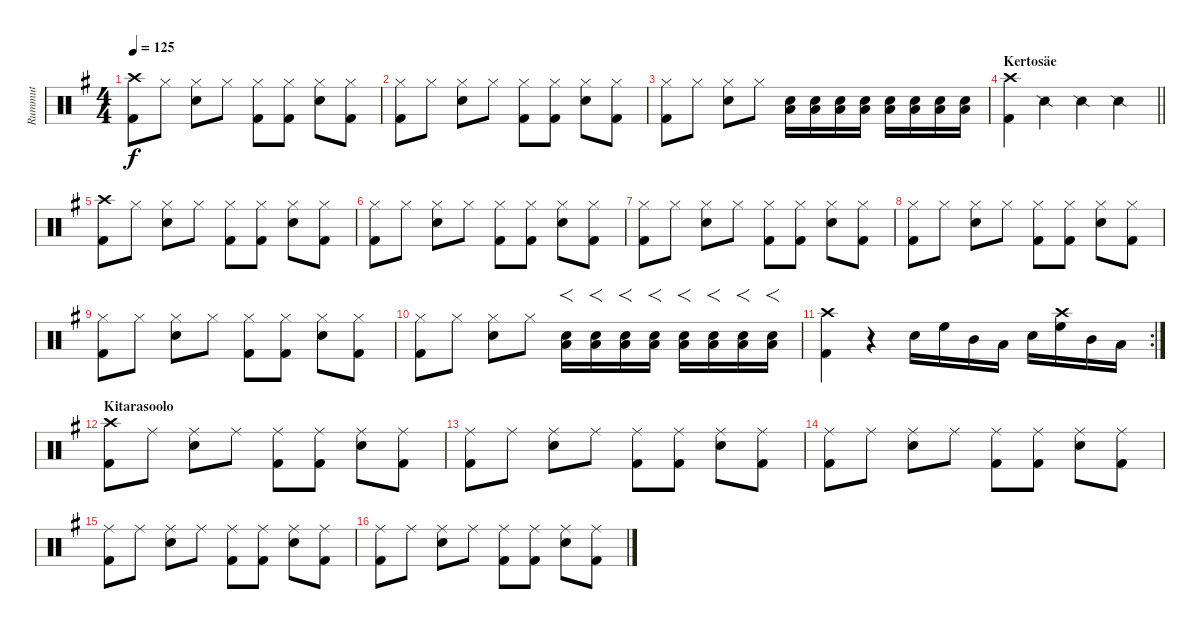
\track ("Rummut" "Rummut") {instrument percussion}
\staff {score}
\articulation defaults
\ts (4 4)
\tempo 125
\clef neutral
\ks g
("Crash high (hit)" "Kick (hit) 2").8{dy f} "Hi-Hat (closed)".8 ("Hi-Hat (closed)" "Snare (hit) 2").8 "Hi-Hat (closed)".8 ("Hi-Hat (closed)" "Kick (hit) 2").8 ("Hi-Hat (closed)" "Kick (hit) 2").8 ("Hi-Hat (closed)" "Snare (hit) 2").8 ("Hi-Hat (closed)" "Kick (hit) 2").8 |
("Hi-Hat (closed)" "Kick (hit) 2").8 "Hi-Hat (closed)".8 ("Hi-Hat (closed)" "Snare (hit) 2").8 "Hi-Hat (closed)".8 ("Hi-Hat (closed)" "Kick (hit) 2").8 ("Hi-Hat (closed)" "Kick (hit) 2").8 ("Hi-Hat (closed)" "Snare (hit) 2").8 ("Hi-Hat (closed)" "Kick (hit) 2").8 |
("Hi-Hat (closed)" "Kick (hit) 2").8 "Hi-Hat (closed)".8 ("Snare (hit) 2" "Hi-Hat (closed)").8 "Hi-Hat (closed)".8 ("Snare (hit) 2" "Low Floor Tom (hit)").16 ("Snare (hit) 2" "Low Floor Tom (hit)").16 ("Snare (hit) 2" "Low Floor Tom (hit)").16 ("Snare (hit) 2" "Low Floor Tom (hit)").16 ("Snare (hit) 2" "Low Floor Tom (hit)").16 ("Snare (hit) 2" "Low Floor Tom (hit)").16 ("Snare (hit) 2" "Low Floor Tom (hit)").16 ("Snare (hit) 2" "Low Floor Tom (hit)").16 |
\section ("" "Kertosäe")
\barLineRight lightlight
("Crash high (hit)" "Kick (hit) 2").4 "Snare (side stick) 2".4 "Snare (side stick) 2".4 "Snare (side stick) 2".4 |
("Crash high (hit)" "Kick (hit) 2").8 "Hi-Hat (closed)".8 ("Hi-Hat (closed)" "Snare (hit) 2").8 "Hi-Hat (closed)".8 ("Hi-Hat (closed)" "Kick (hit) 2").8 ("Hi-Hat (closed)" "Kick (hit) 2").8 ("Hi-Hat (closed)" "Snare (hit) 2").8 ("Hi-Hat (closed)" "Kick (hit) 2").8 |
("Hi-Hat (closed)" "Kick (hit) 2").8 "Hi-Hat (closed)".8 ("Snare (hit) 2" "Hi-Hat (closed)").8 "Hi-Hat (closed)".8 ("Hi-Hat (closed)" "Kick (hit) 2").8 ("Hi-Hat (closed)" "Kick (hit) 2").8 ("Hi-Hat (closed)" "Snare (hit) 2").8 ("Hi-Hat (closed)" "Kick (hit) 2").8 |
("Hi-Hat (closed)" "Kick (hit) 2").8 "Hi-Hat (closed)".8 ("Hi-Hat (closed)" "Snare (hit) 2").8 "Hi-Hat (closed)".8 ("Hi-Hat (closed)" "Kick (hit) 2").8 ("Hi-Hat (closed)" "Kick (hit) 2").8 ("Hi-Hat (closed)" "Snare (hit) 2").8 ("Hi-Hat (closed)" "Kick (hit) 2").8 |
("Hi-Hat (closed)" "Kick (hit) 2").8 "Hi-Hat (closed)".8 ("Hi-Hat (closed)" "Snare (hit) 2").8 "Hi-Hat (closed)".8 ("Hi-Hat (closed)" "Kick (hit) 2").8 ("Hi-Hat (closed)" "Kick (hit) 2").8 ("Hi-Hat (closed)" "Snare (hit) 2").8 ("Hi-Hat (closed)" "Kick (hit) 2").8 |
("Hi-Hat (closed)" "Kick (hit) 2").8 "Hi-Hat (closed)".8 ("Hi-Hat (closed)" "Snare (hit) 2").8 "Hi-Hat (closed)".8 ("Hi-Hat (closed)" "Kick (hit) 2").8 ("Hi-Hat (closed)" "Kick (hit) 2").8 ("Hi-Hat (closed)" "Snare (hit) 2").8 ("Hi-Hat (closed)" "Kick (hit) 2").8 |
("Hi-Hat (closed)" "Kick (hit) 2").8 "Hi-Hat (closed)".8 ("Hi-Hat (closed)" "Snare (hit) 2").8 "Hi-Hat (closed)".8 ("Snare (hit) 2" "Low Floor Tom (hit)").16{f} ("Snare (hit) 2" "Low Floor Tom (hit)").16{f} ("Snare (hit) 2" "Low Floor Tom (hit)").16{f} ("Snare (hit) 2" "Low Floor Tom (hit)").16{f} ("Snare (hit) 2" "Low Floor Tom (hit)").16{f} ("Snare (hit) 2" "Low Floor Tom (hit)").16{f} ("Snare (hit) 2" "Low Floor Tom (hit)").16{f} ("Snare (hit) 2" "Low Floor Tom (hit)").16{f} |
\rc 2
("Crash high (hit)" "Kick (hit) 2").4 r.4 "Snare (hit) 2".16 "High Floor Tom (hit)".16 "Mid Tom (hit)".16 "Low Tom (hit)".16 "Snare (hit) 2".16 ("Crash high (hit)" "High Floor Tom (hit)").16 "Mid Tom (hit)".16 "Low Tom (hit)".16 |
\section ("" "Kitarasoolo")
("Crash high (hit)" "Kick (hit) 2").8 "Ride (middle)".8 ("Ride (middle)" "Snare (hit) 2").8 "Ride (middle)".8 ("Ride (middle)" "Kick (hit) 2").8 ("Ride (middle)" "Kick (hit) 2").8 ("Ride (middle)" "Snare (hit) 2").8 ("Ride (middle)" "Kick (hit) 2").8 |
("Ride (middle)" "Kick (hit) 2").8 "Ride (middle)".8 ("Ride (middle)" "Snare (hit) 2").8 "Ride (middle)".8 ("Ride (middle)" "Kick (hit) 2").8 ("Ride (middle)" "Kick (hit) 2").8 ("Ride (middle)" "Snare (hit) 2").8 ("Ride (middle)" "Kick (hit) 2").8 |
("Ride (middle)" "Kick (hit) 2").8 "Ride (middle)".8 ("Ride (middle)" "Snare (hit) 2").8 "Ride (middle)".8 ("Ride (middle)" "Kick (hit) 2").8 ("Ride (middle)" "Kick (hit) 2").8 ("Ride (middle)" "Snare (hit) 2").8 ("Ride (middle)" "Kick (hit) 2").8 |
("Ride (middle)" "Kick (hit) 2").8 "Ride (middle)".8 ("Ride (middle)" "Snare (hit) 2").8 "Ride (middle)".8 ("Ride (middle)" "Kick (hit) 2").8 ("Ride (middle)" "Kick (hit) 2").8 ("Ride (middle)" "Snare (hit) 2").8 ("Ride (middle)" "Kick (hit) 2").8 |
("Ride (middle)" "Kick (hit) 2").8 "Ride (middle)".8 ("Ride (middle)" "Snare (hit) 2").8 "Ride (middle)".8 ("Ride (middle)" "Kick (hit) 2").8 ("Ride (middle)" "Kick (hit) 2").8 ("Ride (middle)" "Snare (hit) 2").8 ("Ride (middle)" "Kick (hit) 2").8
